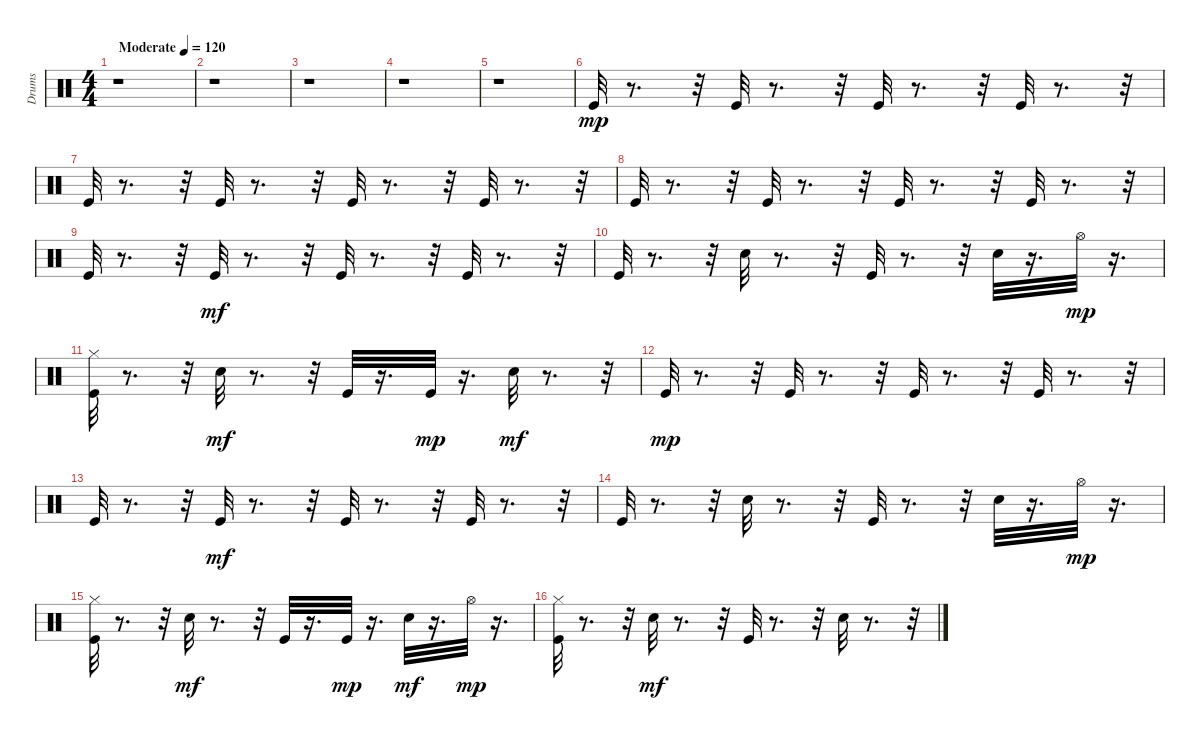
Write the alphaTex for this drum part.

\track ("Drums" "Drums") {instrument percussion}
\staff {score}
\articulation defaults
\ts (4 4)
\tempo (120 "Moderate")
\clef neutral
\ks c
r.1{dy mp} |
r.1 |
r.1 |
r.1 |
r.1 |
"Kick (hit)".32 r.8{d} r.32 "Kick (hit)".32 r.8{d} r.32 "Kick (hit)".32 r.8{d} r.32 "Kick (hit)".32 r.8{d} r.32 |
"Kick (hit)".32 r.8{d} r.32 "Kick (hit)".32 r.8{d} r.32 "Kick (hit)".32 r.8{d} r.32 "Kick (hit)".32 r.8{d} r.32 |
"Kick (hit)".32 r.8{d} r.32 "Kick (hit)".32 r.8{d} r.32 "Kick (hit)".32 r.8{d} r.32 "Kick (hit)".32 r.8{d} r.32 |
"Kick (hit)".32 r.8{d} r.32 "Kick (hit)".32{dy mf} r.8{d} r.32 "Kick (hit)".32 r.8{d} r.32 "Kick (hit)".32 r.8{d} r.32 |
"Kick (hit)".32 r.8{d} r.32 "Electric Snare (hit)".32 r.8{d} r.32 "Kick (hit)".32 r.8{d} r.32 "Electric Snare (hit)".32 r.16{d} "Hi-Hat (open)".32{dy mp} r.16{d} |
("Kick (hit)" "Hi-Hat (closed)").32 r.8{d} r.32 "Electric Snare (hit)".32{dy mf} r.8{d} r.32 "Kick (hit)".32 r.16{d} "Kick (hit)".32{dy mp} r.16{d} "Electric Snare (hit)".32{dy mf} r.8{d} r.32 |
"Kick (hit)".32{dy mp} r.8{d} r.32 "Kick (hit)".32 r.8{d} r.32 "Kick (hit)".32 r.8{d} r.32 "Kick (hit)".32 r.8{d} r.32 |
"Kick (hit)".32 r.8{d} r.32 "Kick (hit)".32{dy mf} r.8{d} r.32 "Kick (hit)".32 r.8{d} r.32 "Kick (hit)".32 r.8{d} r.32 |
"Kick (hit)".32 r.8{d} r.32 "Electric Snare (hit)".32 r.8{d} r.32 "Kick (hit)".32 r.8{d} r.32 "Electric Snare (hit)".32 r.16{d} "Hi-Hat (open)".32{dy mp} r.16{d} |
("Kick (hit)" "Hi-Hat (closed)").32 r.8{d} r.32 "Electric Snare (hit)".32{dy mf} r.8{d} r.32 "Kick (hit)".32 r.16{d} "Kick (hit)".32{dy mp} r.16{d} "Electric Snare (hit)".32{dy mf} r.16{d} "Hi-Hat (open)".32{dy mp} r.16{d} |
("Kick (hit)" "Hi-Hat (closed)").32 r.8{d} r.32 "Electric Snare (hit)".32{dy mf} r.8{d} r.32 "Kick (hit)".32 r.8{d} r.32 "Electric Snare (hit)".32 r.8{d} r.32
